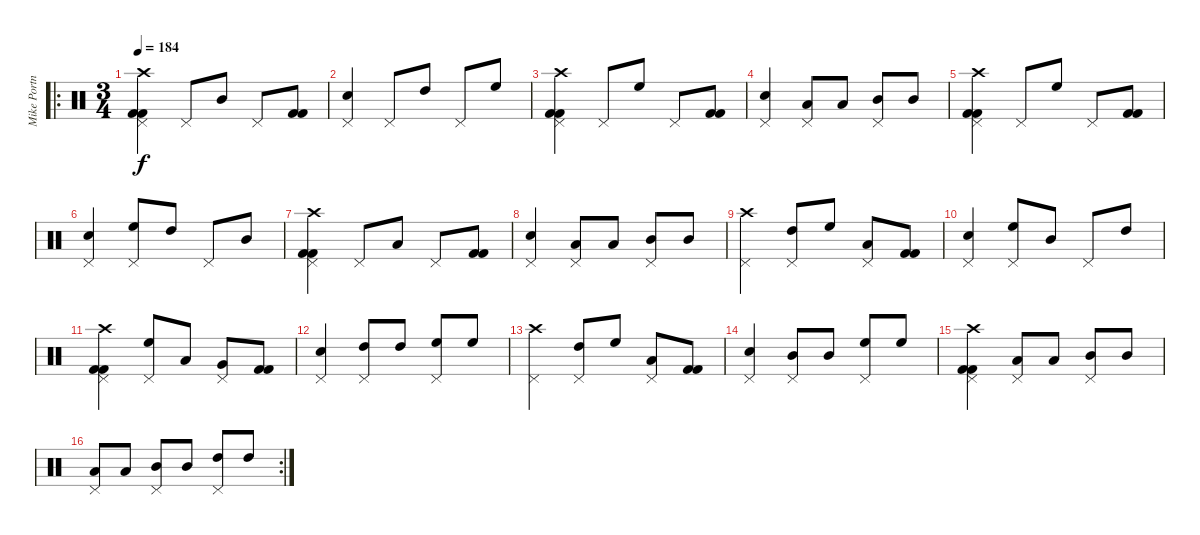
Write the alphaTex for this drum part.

\track ("Mike Portnoy - Drum" "Mike Portn") {instrument percussion}
\staff {score}
\articulation defaults
\ro
\ts (3 4)
\tempo 184
\clef neutral
\ks c
("Crash high (hit)" "Kick (hit) 2" "Kick (hit) 2" "Pedal Hi-Hat (hit)").4{dy f} "Pedal Hi-Hat (hit)".8 "Mid Tom (hit)".8 "Pedal Hi-Hat (hit)".8 ("Kick (hit) 2" "Kick (hit) 2").8 |
("Snare (hit) 2" "Pedal Hi-Hat (hit)").4 "Pedal Hi-Hat (hit)".8 "High Tom (hit)".8 "Pedal Hi-Hat (hit)".8 "High Floor Tom (hit)".8 |
("Crash high (hit)" "Kick (hit) 2" "Kick (hit) 2" "Pedal Hi-Hat (hit)").4 "Pedal Hi-Hat (hit)".8 "High Floor Tom (hit)".8 "Pedal Hi-Hat (hit)".8 ("Kick (hit) 2" "Kick (hit) 2").8 |
("Snare (hit) 2" "Pedal Hi-Hat (hit)").4 ("Low Tom (hit)" "Pedal Hi-Hat (hit)").8 "Low Tom (hit)".8 ("Mid Tom (hit)" "Pedal Hi-Hat (hit)").8 "Mid Tom (hit)".8 |
("Crash high (hit)" "Kick (hit) 2" "Kick (hit) 2" "Pedal Hi-Hat (hit)").4 "Pedal Hi-Hat (hit)".8 "High Floor Tom (hit)".8 "Pedal Hi-Hat (hit)".8 ("Kick (hit) 2" "Kick (hit) 2").8 |
("Snare (hit) 2" "Pedal Hi-Hat (hit)").4 ("High Floor Tom (hit)" "Pedal Hi-Hat (hit)").8 "High Tom (hit)".8 "Pedal Hi-Hat (hit)".8 "Mid Tom (hit)".8 |
("Crash high (hit)" "Kick (hit) 2" "Kick (hit) 2" "Pedal Hi-Hat (hit)").4 "Pedal Hi-Hat (hit)".8 "Low Floor Tom (hit)".8 "Pedal Hi-Hat (hit)".8 ("Kick (hit) 2" "Kick (hit) 2").8 |
("Snare (hit) 2" "Pedal Hi-Hat (hit)").4 ("Low Tom (hit)" "Pedal Hi-Hat (hit)").8 "Low Tom (hit)".8 ("Mid Tom (hit)" "Pedal Hi-Hat (hit)").8 "Mid Tom (hit)".8 |
("Crash high (hit)" "Pedal Hi-Hat (hit)").4 ("High Tom (hit)" "Pedal Hi-Hat (hit)").8 "High Floor Tom (hit)".8 ("Low Floor Tom (hit)" "Pedal Hi-Hat (hit)").8 ("Kick (hit) 2" "Kick (hit) 2").8 |
("Snare (hit) 2" "Pedal Hi-Hat (hit)").4 ("High Floor Tom (hit)" "Pedal Hi-Hat (hit)").8 "Mid Tom (hit)".8 "Pedal Hi-Hat (hit)".8 "High Tom (hit)".8 |
("Crash high (hit)" "Pedal Hi-Hat (hit)" "Kick (hit) 2" "Kick (hit) 2").4 ("High Floor Tom (hit)" "Pedal Hi-Hat (hit)").8 "Low Floor Tom (hit)".8 ("Very Low Tom (hit)" "Pedal Hi-Hat (hit)").8 ("Kick (hit) 2" "Kick (hit) 2").8 |
("Snare (hit) 2" "Pedal Hi-Hat (hit)").4 ("High Tom (hit)" "Pedal Hi-Hat (hit)").8 "High Tom (hit)".8 ("High Floor Tom (hit)" "Pedal Hi-Hat (hit)").8 "High Floor Tom (hit)".8 |
("Crash high (hit)" "Pedal Hi-Hat (hit)").4 ("High Tom (hit)" "Pedal Hi-Hat (hit)").8 "High Floor Tom (hit)".8 ("Low Floor Tom (hit)" "Pedal Hi-Hat (hit)").8 ("Kick (hit) 2" "Kick (hit) 2").8 |
("Snare (hit) 2" "Pedal Hi-Hat (hit)").4 ("Mid Tom (hit)" "Pedal Hi-Hat (hit)").8 "Mid Tom (hit)".8 ("High Floor Tom (hit)" "Pedal Hi-Hat (hit)").8 "High Floor Tom (hit)".8 |
("Crash high (hit)" "Kick (hit) 2" "Kick (hit) 2" "Pedal Hi-Hat (hit)").4 ("Low Tom (hit)" "Pedal Hi-Hat (hit)").8 "Low Tom (hit)".8 ("Mid Tom (hit)" "Pedal Hi-Hat (hit)").8 "Mid Tom (hit)".8 |
\rc 2
("Low Tom (hit)" "Pedal Hi-Hat (hit)").8 "Low Tom (hit)".8 ("Mid Tom (hit)" "Pedal Hi-Hat (hit)").8 "Mid Tom (hit)".8 ("High Tom (hit)" "Pedal Hi-Hat (hit)").8 "High Tom (hit)".8
